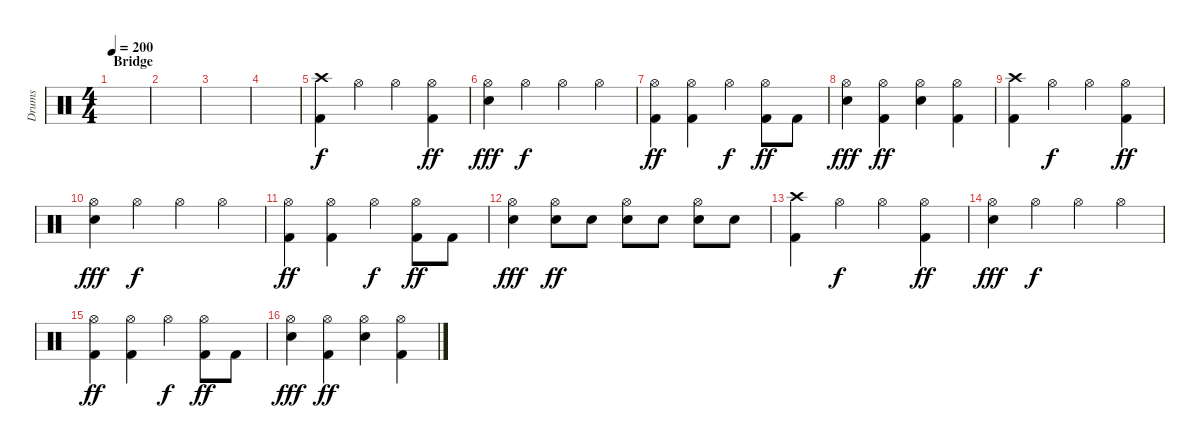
\track ("Drums" "Drums") {instrument percussion}
\staff {score}
\articulation defaults
\ts (4 4)
\section ("" "Bridge")
\tempo 200
\clef neutral
\ks c
|
|
|
|
("Crash high (hit)" "Kick (hit) 2").4 "Hi-Hat (open)".4{dy f} "Hi-Hat (open)".4 ("Hi-Hat (open)" "Kick (hit) 2").4{dy ff} |
("Hi-Hat (open)" "Electric Snare (hit)").4{dy fff} "Hi-Hat (open)".4{dy f} "Hi-Hat (open)".4 "Hi-Hat (open)".4 |
("Hi-Hat (open)" "Kick (hit) 2").4{dy ff} ("Hi-Hat (open)" "Kick (hit) 2").4 "Hi-Hat (open)".4{dy f} ("Hi-Hat (open)" "Kick (hit) 2").8{dy ff} "Kick (hit) 2".8 |
("Hi-Hat (open)" "Electric Snare (hit)").4{dy fff} ("Hi-Hat (open)" "Kick (hit) 2").4{dy ff} ("Hi-Hat (open)" "Electric Snare (hit)").4 ("Hi-Hat (open)" "Kick (hit) 2").4 |
("Crash high (hit)" "Kick (hit) 2").4 "Hi-Hat (open)".4{dy f} "Hi-Hat (open)".4 ("Hi-Hat (open)" "Kick (hit) 2").4{dy ff} |
("Hi-Hat (open)" "Electric Snare (hit)").4{dy fff} "Hi-Hat (open)".4{dy f} "Hi-Hat (open)".4 "Hi-Hat (open)".4 |
("Hi-Hat (open)" "Kick (hit) 2").4{dy ff} ("Hi-Hat (open)" "Kick (hit) 2").4 "Hi-Hat (open)".4{dy f} ("Hi-Hat (open)" "Kick (hit) 2").8{dy ff} "Kick (hit) 2".8 |
("Hi-Hat (open)" "Electric Snare (hit)").4{dy fff} ("Hi-Hat (open)" "Electric Snare (hit)").8{dy ff} "Electric Snare (hit)".8 ("Hi-Hat (open)" "Electric Snare (hit)").8 "Electric Snare (hit)".8 ("Hi-Hat (open)" "Electric Snare (hit)").8 "Electric Snare (hit)".8 |
("Crash high (hit)" "Kick (hit) 2").4 "Hi-Hat (open)".4{dy f} "Hi-Hat (open)".4 ("Hi-Hat (open)" "Kick (hit) 2").4{dy ff} |
("Hi-Hat (open)" "Electric Snare (hit)").4{dy fff} "Hi-Hat (open)".4{dy f} "Hi-Hat (open)".4 "Hi-Hat (open)".4 |
("Hi-Hat (open)" "Kick (hit) 2").4{dy ff} ("Hi-Hat (open)" "Kick (hit) 2").4 "Hi-Hat (open)".4{dy f} ("Hi-Hat (open)" "Kick (hit) 2").8{dy ff} "Kick (hit) 2".8 |
("Hi-Hat (open)" "Electric Snare (hit)").4{dy fff} ("Hi-Hat (open)" "Kick (hit) 2").4{dy ff} ("Hi-Hat (open)" "Electric Snare (hit)").4 ("Hi-Hat (open)" "Kick (hit) 2").4
